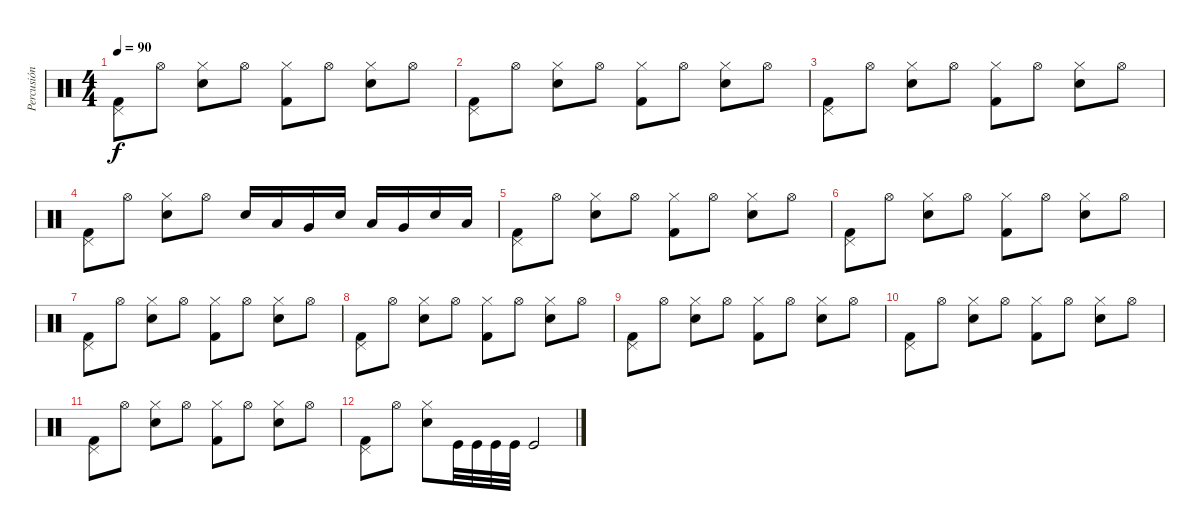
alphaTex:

\track ("Percusión" "Percusión") {instrument percussion}
\staff {score}
\articulation defaults
\ts (4 4)
\tempo 90
\clef neutral
\ks c
("Pedal Hi-Hat (hit)" "Kick (hit) 2").8{dy f} "Hi-Hat (open)".8 ("Hi-Hat (closed)" "Snare (hit) 2").8 "Hi-Hat (open)".8 ("Hi-Hat (closed)" "Kick (hit) 2").8 "Hi-Hat (open)".8 ("Hi-Hat (closed)" "Snare (hit) 2").8 "Hi-Hat (open)".8 |
("Pedal Hi-Hat (hit)" "Kick (hit) 2").8 "Hi-Hat (open)".8 ("Hi-Hat (closed)" "Snare (hit) 2").8 "Hi-Hat (open)".8 ("Hi-Hat (closed)" "Kick (hit) 2").8 "Hi-Hat (open)".8 ("Hi-Hat (closed)" "Snare (hit) 2").8 "Hi-Hat (open)".8 |
("Pedal Hi-Hat (hit)" "Kick (hit) 2").8 "Hi-Hat (open)".8 ("Hi-Hat (closed)" "Snare (hit) 2").8 "Hi-Hat (open)".8 ("Hi-Hat (closed)" "Kick (hit) 2").8 "Hi-Hat (open)".8 ("Hi-Hat (closed)" "Snare (hit) 2").8 "Hi-Hat (open)".8 |
("Pedal Hi-Hat (hit)" "Kick (hit) 2").8 "Hi-Hat (open)".8 ("Hi-Hat (closed)" "Snare (hit) 2").8 "Hi-Hat (open)".8 "Snare (hit) 2".16 "Low Tom (hit)".16 "Very Low Tom (hit)".16 "Snare (hit) 2".16 "Low Tom (hit)".16 "Very Low Tom (hit)".16 "Snare (hit) 2".16 "Low Tom (hit)".16 |
("Pedal Hi-Hat (hit)" "Kick (hit) 2").8 "Hi-Hat (open)".8 ("Hi-Hat (closed)" "Snare (hit) 2").8 "Hi-Hat (open)".8 ("Hi-Hat (closed)" "Kick (hit) 2").8 "Hi-Hat (open)".8 ("Hi-Hat (closed)" "Snare (hit) 2").8 "Hi-Hat (open)".8 |
("Pedal Hi-Hat (hit)" "Kick (hit) 2").8 "Hi-Hat (open)".8 ("Hi-Hat (closed)" "Snare (hit) 2").8 "Hi-Hat (open)".8 ("Hi-Hat (closed)" "Kick (hit) 2").8 "Hi-Hat (open)".8 ("Hi-Hat (closed)" "Snare (hit) 2").8 "Hi-Hat (open)".8 |
("Pedal Hi-Hat (hit)" "Kick (hit) 2").8 "Hi-Hat (open)".8 ("Hi-Hat (closed)" "Snare (hit) 2").8 "Hi-Hat (open)".8 ("Hi-Hat (closed)" "Kick (hit) 2").8 "Hi-Hat (open)".8 ("Hi-Hat (closed)" "Snare (hit) 2").8 "Hi-Hat (open)".8 |
("Pedal Hi-Hat (hit)" "Kick (hit) 2").8 "Hi-Hat (open)".8 ("Hi-Hat (closed)" "Snare (hit) 2").8 "Hi-Hat (open)".8 ("Hi-Hat (closed)" "Kick (hit) 2").8 "Hi-Hat (open)".8 ("Hi-Hat (closed)" "Snare (hit) 2").8 "Hi-Hat (open)".8 |
("Pedal Hi-Hat (hit)" "Kick (hit) 2").8 "Hi-Hat (open)".8 ("Hi-Hat (closed)" "Snare (hit) 2").8 "Hi-Hat (open)".8 ("Hi-Hat (closed)" "Kick (hit) 2").8 "Hi-Hat (open)".8 ("Hi-Hat (closed)" "Snare (hit) 2").8 "Hi-Hat (open)".8 |
("Pedal Hi-Hat (hit)" "Kick (hit) 2").8 "Hi-Hat (open)".8 ("Hi-Hat (closed)" "Snare (hit) 2").8 "Hi-Hat (open)".8 ("Hi-Hat (closed)" "Kick (hit) 2").8 "Hi-Hat (open)".8 ("Hi-Hat (closed)" "Snare (hit) 2").8 "Hi-Hat (open)".8 |
("Pedal Hi-Hat (hit)" "Kick (hit) 2").8 "Hi-Hat (open)".8 ("Hi-Hat (closed)" "Snare (hit) 2").8 "Hi-Hat (open)".8 ("Hi-Hat (closed)" "Kick (hit) 2").8 "Hi-Hat (open)".8 ("Hi-Hat (closed)" "Snare (hit) 2").8 "Hi-Hat (open)".8 |
("Pedal Hi-Hat (hit)" "Kick (hit) 2").8 "Hi-Hat (open)".8 ("Hi-Hat (closed)" "Snare (hit) 2").8 "Kick (hit)".32 "Kick (hit)".32 "Kick (hit)".32 "Kick (hit)".32 "Kick (hit)".2
